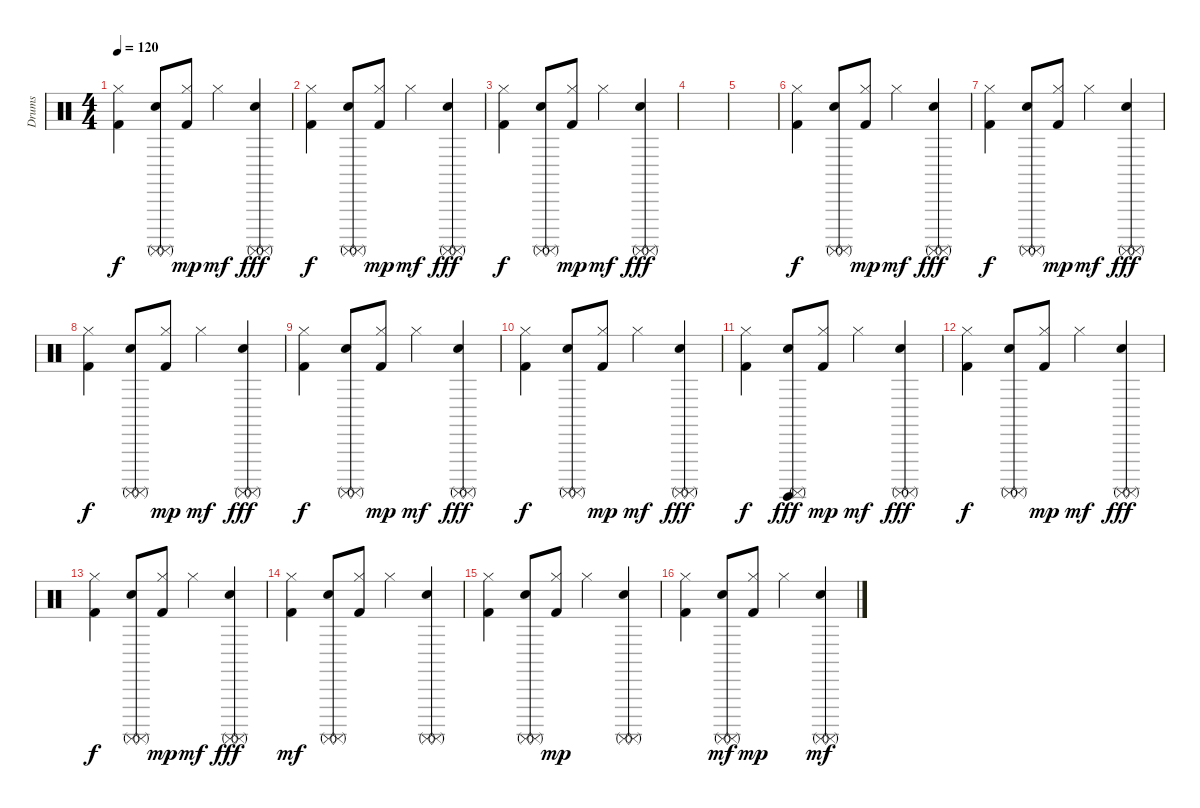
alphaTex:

\track ("Drums" "Drums") {instrument percussion}
\staff {score}
\articulation defaults
\ts (4 4)
\tempo 120
\clef neutral
\ks c
("Kick (hit) 2" "Hi-Hat (closed)").4{dy f} ("Snare (hit) 2" "Surdo (mute)" "Surdo (mute)").8 ("Kick (hit) 2" "Hi-Hat (closed)").8{dy mp} "Hi-Hat (closed)".4{dy mf volume 13} ("Snare (hit) 2" "Surdo (mute)" "Surdo (mute)").4{dy fff} |
("Kick (hit) 2" "Hi-Hat (closed)").4{dy f} ("Snare (hit) 2" "Surdo (mute)" "Surdo (mute)").8 ("Kick (hit) 2" "Hi-Hat (closed)").8{dy mp} "Hi-Hat (closed)".4{dy mf volume 13} ("Snare (hit) 2" "Surdo (mute)" "Surdo (mute)").4{dy fff} |
("Kick (hit) 2" "Hi-Hat (closed)").4{dy f} ("Snare (hit) 2" "Surdo (mute)" "Surdo (mute)").8 ("Kick (hit) 2" "Hi-Hat (closed)").8{dy mp} "Hi-Hat (closed)".4{dy mf volume 13} ("Snare (hit) 2" "Surdo (mute)" "Surdo (mute)").4{dy fff} |
|
|
("Kick (hit) 2" "Hi-Hat (closed)").4{dy f} ("Snare (hit) 2" "Surdo (mute)" "Surdo (mute)").8 ("Kick (hit) 2" "Hi-Hat (closed)").8{dy mp} "Hi-Hat (closed)".4{dy mf volume 13} ("Snare (hit) 2" "Surdo (mute)" "Surdo (mute)").4{dy fff} |
("Kick (hit) 2" "Hi-Hat (closed)").4{dy f} ("Snare (hit) 2" "Surdo (mute)" "Surdo (mute)").8 ("Kick (hit) 2" "Hi-Hat (closed)").8{dy mp} "Hi-Hat (closed)".4{dy mf volume 13} ("Snare (hit) 2" "Surdo (mute)" "Surdo (mute)").4{dy fff} |
("Kick (hit) 2" "Hi-Hat (closed)").4{dy f} ("Snare (hit) 2" "Surdo (mute)" "Surdo (mute)").8 ("Kick (hit) 2" "Hi-Hat (closed)").8{dy mp} "Hi-Hat (closed)".4{dy mf volume 13} ("Snare (hit) 2" "Surdo (mute)" "Surdo (mute)").4{dy fff} |
("Kick (hit) 2" "Hi-Hat (closed)").4{dy f} ("Snare (hit) 2" "Surdo (mute)" "Surdo (mute)").8 ("Kick (hit) 2" "Hi-Hat (closed)").8{dy mp} "Hi-Hat (closed)".4{dy mf volume 13} ("Snare (hit) 2" "Surdo (mute)" "Surdo (mute)").4{dy fff} |
("Kick (hit) 2" "Hi-Hat (closed)").4{dy f} ("Snare (hit) 2" "Surdo (mute)" "Surdo (mute)").8 ("Kick (hit) 2" "Hi-Hat (closed)").8{dy mp} "Hi-Hat (closed)".4{dy mf volume 13} ("Snare (hit) 2" "Surdo (mute)" "Surdo (mute)").4{dy fff} |
("Kick (hit) 2" "Hi-Hat (closed)").4{dy f} ("Snare (hit) 2" "Surdo (mute)" "Surdo (hit)").8{dy fff} ("Kick (hit) 2" "Hi-Hat (closed)").8{dy mp} "Hi-Hat (closed)".4{dy mf volume 13} ("Snare (hit) 2" "Surdo (mute)" "Surdo (mute)").4{dy fff} |
("Kick (hit) 2" "Hi-Hat (closed)").4{dy f} ("Snare (hit) 2" "Surdo (mute)" "Surdo (mute)").8 ("Kick (hit) 2" "Hi-Hat (closed)").8{dy mp} "Hi-Hat (closed)".4{dy mf volume 13} ("Snare (hit) 2" "Surdo (mute)" "Surdo (mute)").4{dy fff} |
("Kick (hit) 2" "Hi-Hat (closed)").4{dy f} ("Snare (hit) 2" "Surdo (mute)" "Surdo (mute)").8 ("Kick (hit) 2" "Hi-Hat (closed)").8{dy mp} "Hi-Hat (closed)".4{dy mf volume 13} ("Snare (hit) 2" "Surdo (mute)" "Surdo (mute)").4{dy fff} |
("Kick (hit) 2" "Hi-Hat (closed)").4{dy mf} ("Snare (hit) 2" "Surdo (mute)" "Surdo (mute)").8 ("Kick (hit) 2" "Hi-Hat (closed)").8 "Hi-Hat (closed)".4{volume 13} ("Snare (hit) 2" "Surdo (mute)" "Surdo (mute)").4 |
("Kick (hit) 2" "Hi-Hat (closed)").4 ("Snare (hit) 2" "Surdo (mute)" "Surdo (mute)").8 ("Kick (hit) 2" "Hi-Hat (closed)").8{dy mp} "Hi-Hat (closed)".4{volume 13} ("Snare (hit) 2" "Surdo (mute)" "Surdo (mute)").4 |
("Kick (hit) 2" "Hi-Hat (closed)").4 ("Snare (hit) 2" "Surdo (mute)" "Surdo (mute)").8{dy mf} ("Kick (hit) 2" "Hi-Hat (closed)").8{dy mp} "Hi-Hat (closed)".4{volume 13} ("Snare (hit) 2" "Surdo (mute)" "Surdo (mute)").4{dy mf}
